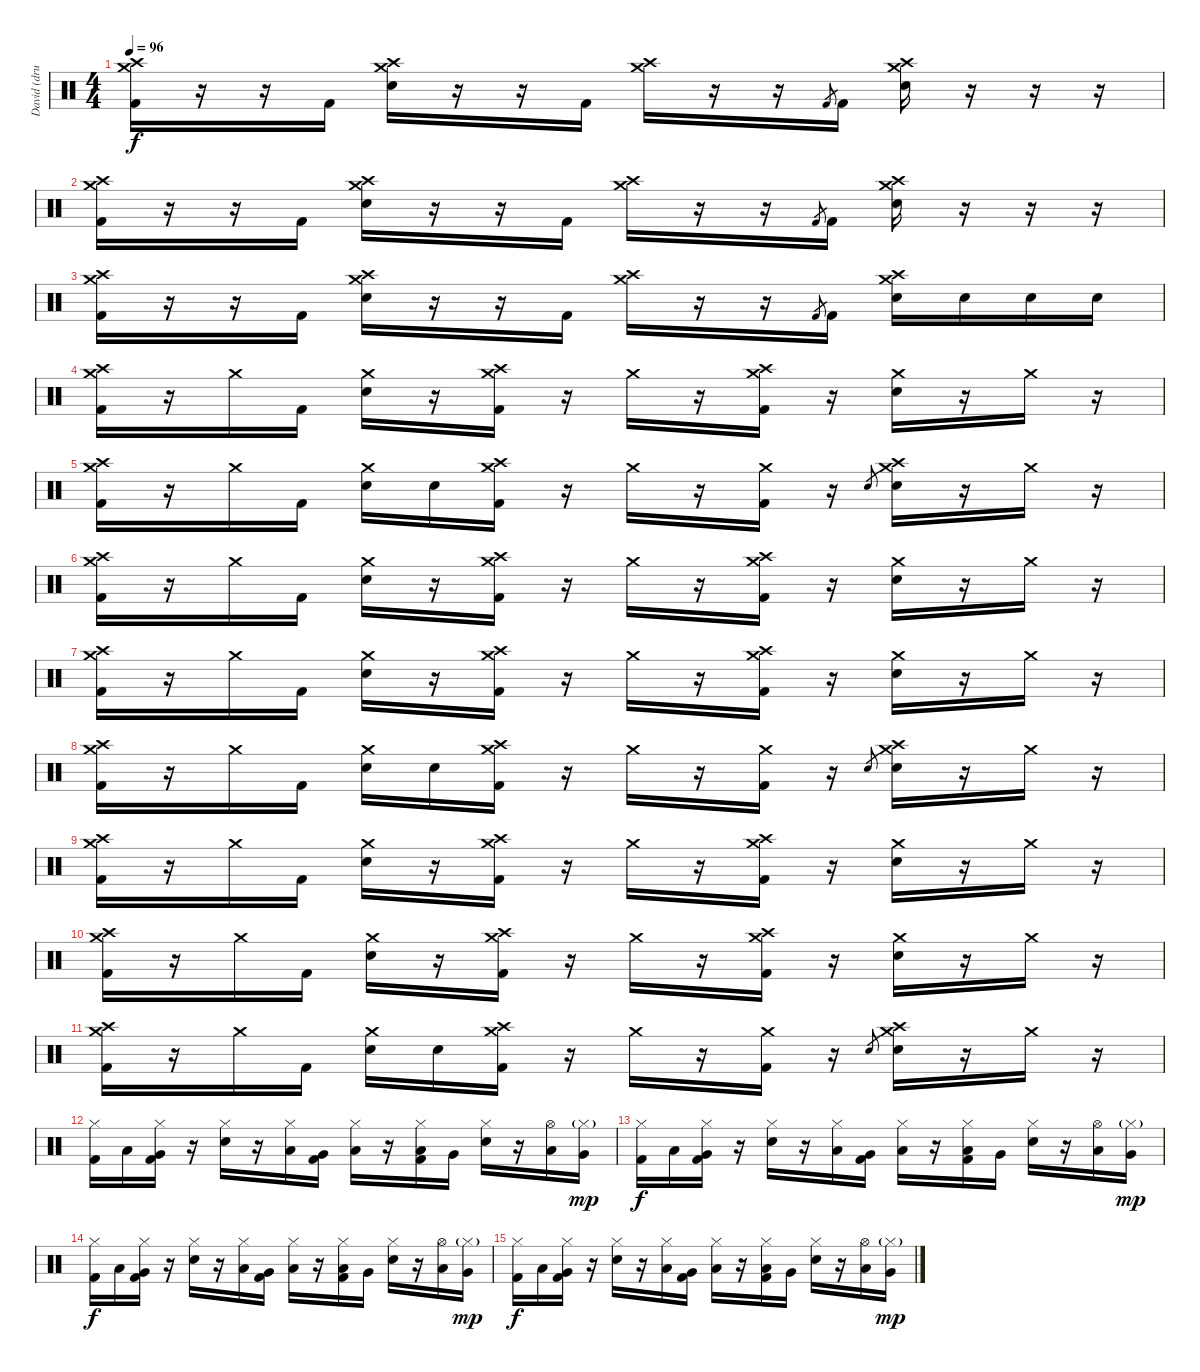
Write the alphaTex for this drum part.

\track ("David (drums)" "David (dru") {instrument percussion}
\staff {score}
\articulation defaults
\ts (4 4)
\tempo 96
\clef neutral
\ks c
("Crash high (hit)" "Crash medium (hit)" "Kick (hit) 2").16{dy f} r.16 r.16 "Kick (hit) 2".16 ("Crash high (hit)" "Crash medium (hit)" "Electric Snare (hit)").16 r.16 r.16 "Kick (hit) 2".16 ("Crash high (hit)" "Crash medium (hit)").16 r.16 r.16 "Kick (hit) 2".8{gr} "Kick (hit) 2".16 ("Crash high (hit)" "Crash medium (hit)" "Electric Snare (hit)").16 r.16 r.16 r.16 |
("Crash high (hit)" "Crash medium (hit)" "Kick (hit) 2").16 r.16 r.16 "Kick (hit) 2".16 ("Crash high (hit)" "Crash medium (hit)" "Electric Snare (hit)").16 r.16 r.16 "Kick (hit) 2".16 ("Crash high (hit)" "Crash medium (hit)").16 r.16 r.16 "Kick (hit) 2".8{gr} "Kick (hit) 2".16 ("Crash high (hit)" "Crash medium (hit)" "Electric Snare (hit)").16 r.16 r.16 r.16 |
("Crash high (hit)" "Crash medium (hit)" "Kick (hit) 2").16 r.16 r.16 "Kick (hit) 2".16 ("Crash high (hit)" "Crash medium (hit)" "Electric Snare (hit)").16 r.16 r.16 "Kick (hit) 2".16 ("Crash high (hit)" "Crash medium (hit)").16 r.16 r.16 "Kick (hit) 2".8{gr} "Kick (hit) 2".16 ("Crash high (hit)" "Crash medium (hit)" "Electric Snare (hit)").16 "Electric Snare (hit)".16 "Electric Snare (hit)".16 "Electric Snare (hit)".16 |
("Crash high (hit)" "Crash medium (hit)" "Kick (hit) 2").16 r.16 "Crash medium (hit)".16 "Kick (hit) 2".16 ("Crash medium (hit)" "Electric Snare (hit)").16 r.16 ("Crash high (hit)" "Crash medium (hit)" "Kick (hit) 2").16 r.16 "Crash medium (hit)".16 r.16 ("Crash high (hit)" "Crash medium (hit)" "Kick (hit) 2").16 r.16 ("Crash medium (hit)" "Electric Snare (hit)").16 r.16 "Crash medium (hit)".16 r.16 |
("Crash high (hit)" "Crash medium (hit)" "Kick (hit) 2").16 r.16 "Crash medium (hit)".16 "Kick (hit) 2".16 ("Crash medium (hit)" "Electric Snare (hit)").16 "Electric Snare (hit)".16 ("Crash high (hit)" "Crash medium (hit)" "Kick (hit) 2").16 r.16 "Crash medium (hit)".16 r.16 ("Crash medium (hit)" "Kick (hit) 2").16 r.16 "Electric Snare (hit)".8{gr} ("Crash high (hit)" "Crash medium (hit)" "Electric Snare (hit)").16 r.16 "Crash medium (hit)".16 r.16 |
("Crash high (hit)" "Crash medium (hit)" "Kick (hit) 2").16 r.16 "Crash medium (hit)".16 "Kick (hit) 2".16 ("Crash medium (hit)" "Electric Snare (hit)").16 r.16 ("Crash high (hit)" "Crash medium (hit)" "Kick (hit) 2").16 r.16 "Crash medium (hit)".16 r.16 ("Crash high (hit)" "Crash medium (hit)" "Kick (hit) 2").16 r.16 ("Crash medium (hit)" "Electric Snare (hit)").16 r.16 "Crash medium (hit)".16 r.16 |
("Crash high (hit)" "Crash medium (hit)" "Kick (hit) 2").16 r.16 "Crash medium (hit)".16 "Kick (hit) 2".16 ("Crash medium (hit)" "Electric Snare (hit)").16 r.16 ("Crash high (hit)" "Crash medium (hit)" "Kick (hit) 2").16 r.16 "Crash medium (hit)".16 r.16 ("Crash high (hit)" "Crash medium (hit)" "Kick (hit) 2").16 r.16 ("Crash medium (hit)" "Electric Snare (hit)").16 r.16 "Crash medium (hit)".16 r.16 |
("Crash high (hit)" "Crash medium (hit)" "Kick (hit) 2").16 r.16 "Crash medium (hit)".16 "Kick (hit) 2".16 ("Crash medium (hit)" "Electric Snare (hit)").16 "Electric Snare (hit)".16 ("Crash high (hit)" "Crash medium (hit)" "Kick (hit) 2").16 r.16 "Crash medium (hit)".16 r.16 ("Crash medium (hit)" "Kick (hit) 2").16 r.16 "Electric Snare (hit)".8{gr} ("Crash high (hit)" "Crash medium (hit)" "Electric Snare (hit)").16 r.16 "Crash medium (hit)".16 r.16 |
("Crash high (hit)" "Crash medium (hit)" "Kick (hit) 2").16 r.16 "Crash medium (hit)".16 "Kick (hit) 2".16 ("Crash medium (hit)" "Electric Snare (hit)").16 r.16 ("Crash high (hit)" "Crash medium (hit)" "Kick (hit) 2").16 r.16 "Crash medium (hit)".16 r.16 ("Crash high (hit)" "Crash medium (hit)" "Kick (hit) 2").16 r.16 ("Crash medium (hit)" "Electric Snare (hit)").16 r.16 "Crash medium (hit)".16 r.16 |
("Crash high (hit)" "Crash medium (hit)" "Kick (hit) 2").16 r.16 "Crash medium (hit)".16 "Kick (hit) 2".16 ("Crash medium (hit)" "Electric Snare (hit)").16 r.16 ("Crash high (hit)" "Crash medium (hit)" "Kick (hit) 2").16 r.16 "Crash medium (hit)".16 r.16 ("Crash high (hit)" "Crash medium (hit)" "Kick (hit) 2").16 r.16 ("Crash medium (hit)" "Electric Snare (hit)").16 r.16 "Crash medium (hit)".16 r.16 |
("Crash high (hit)" "Crash medium (hit)" "Kick (hit) 2").16 r.16 "Crash medium (hit)".16 "Kick (hit) 2".16 ("Crash medium (hit)" "Electric Snare (hit)").16 "Electric Snare (hit)".16 ("Crash high (hit)" "Crash medium (hit)" "Kick (hit) 2").16 r.16 "Crash medium (hit)".16 r.16 ("Crash medium (hit)" "Kick (hit) 2").16 r.16 "Electric Snare (hit)".8{gr} ("Crash high (hit)" "Crash medium (hit)" "Electric Snare (hit)").16 r.16 "Crash medium (hit)".16 r.16 |
("Hi-Hat (closed)" "Kick (hit) 2").16 "Low Tom (hit)".16 ("Hi-Hat (closed)" "Very Low Tom (hit)" "Kick (hit) 2").16 r.16 ("Hi-Hat (closed)" "Electric Snare (hit)").16 r.16 ("Hi-Hat (closed)" "Low Tom (hit)").16 ("Very Low Tom (hit)" "Kick (hit) 2").16 ("Hi-Hat (closed)" "Low Floor Tom (hit)").16 r.16 ("Hi-Hat (closed)" "Low Tom (hit)" "Kick (hit) 2").16 "Very Low Tom (hit)".16 ("Hi-Hat (closed)" "Electric Snare (hit)").16 r.16 ("Hi-Hat (open)" "Low Tom (hit)").16 ("Hi-Hat (closed)"{g} "Very Low Tom (hit)").16{dy mp} |
("Hi-Hat (closed)" "Kick (hit) 2").16{dy f} "Low Tom (hit)".16 ("Hi-Hat (closed)" "Very Low Tom (hit)" "Kick (hit) 2").16 r.16 ("Hi-Hat (closed)" "Electric Snare (hit)").16 r.16 ("Hi-Hat (closed)" "Low Tom (hit)").16 ("Very Low Tom (hit)" "Kick (hit) 2").16 ("Hi-Hat (closed)" "Low Floor Tom (hit)").16 r.16 ("Hi-Hat (closed)" "Low Tom (hit)" "Kick (hit) 2").16 "Very Low Tom (hit)".16 ("Hi-Hat (closed)" "Electric Snare (hit)").16 r.16 ("Hi-Hat (open)" "Low Tom (hit)").16 ("Hi-Hat (closed)"{g} "Very Low Tom (hit)").16{dy mp} |
("Hi-Hat (closed)" "Kick (hit) 2").16{dy f} "Low Tom (hit)".16 ("Hi-Hat (closed)" "Very Low Tom (hit)" "Kick (hit) 2").16 r.16 ("Hi-Hat (closed)" "Electric Snare (hit)").16 r.16 ("Hi-Hat (closed)" "Low Tom (hit)").16 ("Very Low Tom (hit)" "Kick (hit) 2").16 ("Hi-Hat (closed)" "Low Floor Tom (hit)").16 r.16 ("Hi-Hat (closed)" "Low Tom (hit)" "Kick (hit) 2").16 "Very Low Tom (hit)".16 ("Hi-Hat (closed)" "Electric Snare (hit)").16 r.16 ("Hi-Hat (open)" "Low Tom (hit)").16 ("Hi-Hat (closed)"{g} "Very Low Tom (hit)").16{dy mp} |
("Hi-Hat (closed)" "Kick (hit) 2").16{dy f} "Low Tom (hit)".16 ("Hi-Hat (closed)" "Very Low Tom (hit)" "Kick (hit) 2").16 r.16 ("Hi-Hat (closed)" "Electric Snare (hit)").16 r.16 ("Hi-Hat (closed)" "Low Tom (hit)").16 ("Very Low Tom (hit)" "Kick (hit) 2").16 ("Hi-Hat (closed)" "Low Floor Tom (hit)").16 r.16 ("Hi-Hat (closed)" "Low Tom (hit)" "Kick (hit) 2").16 "Very Low Tom (hit)".16 ("Hi-Hat (closed)" "Electric Snare (hit)").16 r.16 ("Hi-Hat (open)" "Low Tom (hit)").16 ("Hi-Hat (closed)"{g} "Very Low Tom (hit)").16{dy mp}
